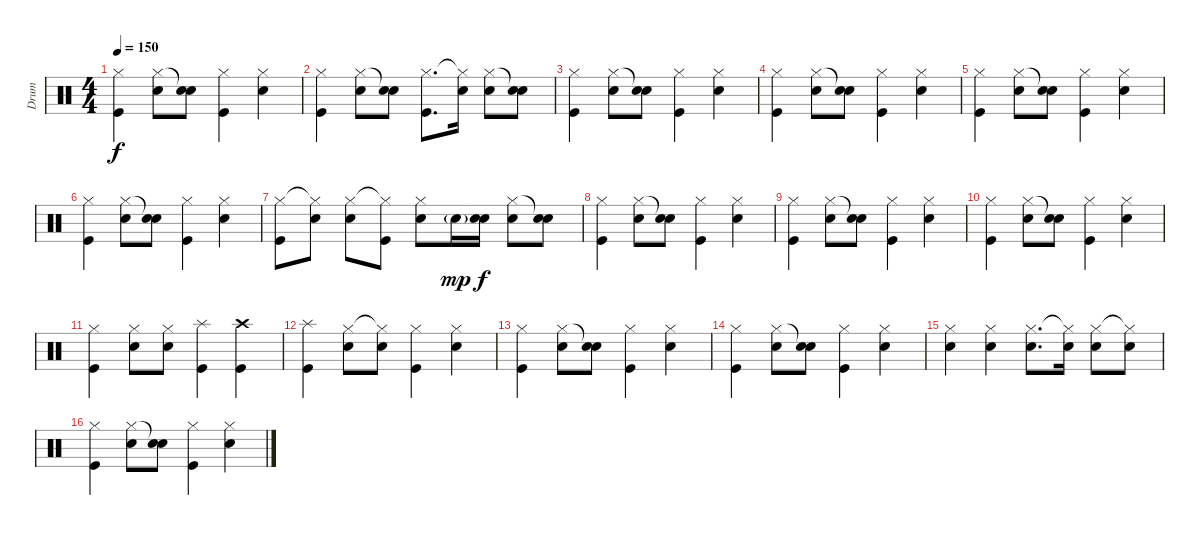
\track ("Drum" "Drum") {instrument percussion}
\staff {score}
\articulation defaults
\ts (4 4)
\tempo 150
\clef neutral
\ks c
("Hi-Hat (closed)" "Kick (hit)").4{dy f} ("Hi-Hat (closed)" "Snare (hit) 2").8 ("Snare (hit)"{t} "Snare (hit) 2").8 ("Hi-Hat (closed)" "Kick (hit)").4 ("Hi-Hat (closed)" "Snare (hit) 2").4 |
("Hi-Hat (closed)" "Kick (hit)").4 ("Hi-Hat (closed)" "Snare (hit) 2").8 ("Snare (hit)"{t} "Snare (hit) 2").8 ("Hi-Hat (closed)" "Kick (hit)").8{d} ("Hi-Hat (closed)"{t} "Snare (hit) 2").16 ("Hi-Hat (closed)" "Snare (hit) 2").8 ("Snare (hit)"{t} "Snare (hit) 2").8 |
("Hi-Hat (closed)" "Kick (hit)").4 ("Hi-Hat (closed)" "Snare (hit) 2").8 ("Snare (hit)"{t} "Snare (hit) 2").8 ("Hi-Hat (closed)" "Kick (hit)").4 ("Hi-Hat (closed)" "Snare (hit) 2").4 |
("Hi-Hat (closed)" "Kick (hit)").4 ("Hi-Hat (closed)" "Snare (hit) 2").8 ("Snare (hit)"{t} "Snare (hit) 2").8 ("Hi-Hat (closed)" "Kick (hit)").4 ("Hi-Hat (closed)" "Snare (hit) 2").4 |
("Hi-Hat (closed)" "Kick (hit)").4 ("Hi-Hat (closed)" "Snare (hit) 2").8 ("Snare (hit)"{t} "Snare (hit) 2").8 ("Hi-Hat (closed)" "Kick (hit)").4 ("Hi-Hat (closed)" "Snare (hit) 2").4 |
("Hi-Hat (closed)" "Kick (hit)").4 ("Hi-Hat (closed)" "Snare (hit) 2").8 ("Snare (hit)"{t} "Snare (hit) 2").8 ("Hi-Hat (closed)" "Kick (hit)").4 ("Hi-Hat (closed)" "Snare (hit) 2").4 |
("Hi-Hat (closed)" "Kick (hit)").8 ("Hi-Hat (closed)"{t} "Snare (hit) 2").8 ("Hi-Hat (closed)" "Snare (hit) 2").8 ("Hi-Hat (closed)"{t} "Kick (hit)").8 ("Hi-Hat (closed)" "Snare (hit) 2").8 "Snare (hit) 2"{g}.16{dy mp} ("Snare (hit)"{t} "Snare (hit) 2").16{dy f} ("Hi-Hat (closed)" "Snare (hit) 2").8 ("Snare (hit)"{t} "Snare (hit) 2").8 |
("Hi-Hat (closed)" "Kick (hit)").4 ("Hi-Hat (closed)" "Snare (hit) 2").8 ("Snare (hit)"{t} "Snare (hit) 2").8 ("Hi-Hat (closed)" "Kick (hit)").4 ("Hi-Hat (closed)" "Snare (hit) 2").4 |
("Hi-Hat (closed)" "Kick (hit)").4 ("Hi-Hat (closed)" "Snare (hit) 2").8 ("Snare (hit)"{t} "Snare (hit) 2").8 ("Hi-Hat (closed)" "Kick (hit)").4 ("Hi-Hat (closed)" "Snare (hit) 2").4 |
("Hi-Hat (closed)" "Kick (hit)").4 ("Hi-Hat (closed)" "Snare (hit) 2").8 ("Snare (hit)"{t} "Snare (hit) 2").8 ("Hi-Hat (closed)" "Kick (hit)").4 ("Hi-Hat (closed)" "Snare (hit) 2").4 |
("Hi-Hat (closed)" "Kick (hit)").4 ("Hi-Hat (closed)" "Snare (hit) 2").8 ("Hi-Hat (closed)" "Snare (hit) 2").8 ("Splash (hit)" "Kick (hit)").4 ("Crash high (hit)" "Kick (hit)").4 |
("Splash (hit)" "Kick (hit)").4 ("Hi-Hat (closed)" "Snare (hit) 2").8 ("Hi-Hat (closed)"{t} "Snare (hit) 2").8 ("Hi-Hat (closed)" "Kick (hit)").4 ("Hi-Hat (closed)" "Snare (hit) 2").4 |
("Hi-Hat (closed)" "Kick (hit)").4 ("Hi-Hat (closed)" "Snare (hit) 2").8 ("Snare (hit)"{t} "Snare (hit) 2").8 ("Hi-Hat (closed)" "Kick (hit)").4 ("Hi-Hat (closed)" "Snare (hit) 2").4 |
("Hi-Hat (closed)" "Kick (hit)").4 ("Hi-Hat (closed)" "Snare (hit) 2").8 ("Snare (hit)"{t} "Snare (hit) 2").8 ("Hi-Hat (closed)" "Kick (hit)").4 ("Hi-Hat (closed)" "Snare (hit) 2").4 |
("Hi-Hat (closed)" "Snare (hit) 2").4 ("Hi-Hat (closed)" "Snare (hit) 2").4 ("Hi-Hat (closed)" "Snare (hit) 2").8{d} ("Hi-Hat (closed)"{t} "Snare (hit) 2").16 ("Hi-Hat (closed)" "Snare (hit) 2").8 ("Hi-Hat (closed)"{t} "Snare (hit) 2").8 |
("Hi-Hat (closed)" "Kick (hit)").4 ("Hi-Hat (closed)" "Snare (hit) 2").8 ("Snare (hit)"{t} "Snare (hit) 2").8 ("Hi-Hat (closed)" "Kick (hit)").4 ("Hi-Hat (closed)" "Snare (hit) 2").4
